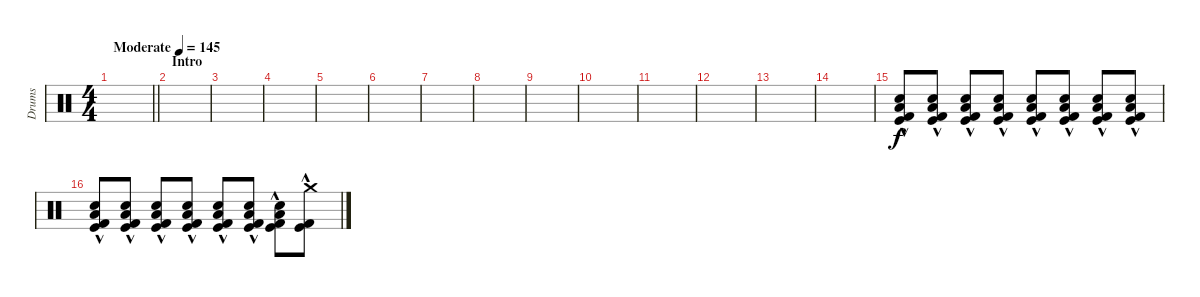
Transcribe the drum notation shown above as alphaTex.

\track ("Drums" "Drums") {instrument percussion}
\staff {score}
\articulation defaults
\ts (4 4)
\tempo (145 "Moderate")
\clef neutral
\barLineRight lightlight
\ks c
|
\section ("" "Intro")
|
|
|
|
|
|
|
|
|
|
|
|
|
("Kick (hit)"{hac} "Low Floor Tom (hit)"{hac} "Electric Snare (hit)" "Kick (hit) 2"{hac}).8 ("Kick (hit)"{hac} "Low Floor Tom (hit)"{hac} "Electric Snare (hit)" "Kick (hit) 2"{hac}).8 ("Kick (hit)"{hac} "Low Floor Tom (hit)"{hac} "Electric Snare (hit)" "Kick (hit) 2"{hac}).8 ("Kick (hit)"{hac} "Low Floor Tom (hit)"{hac} "Electric Snare (hit)" "Kick (hit) 2"{hac}).8 ("Kick (hit)"{hac} "Low Floor Tom (hit)"{hac} "Electric Snare (hit)" "Kick (hit) 2"{hac}).8 ("Kick (hit)"{hac} "Low Floor Tom (hit)"{hac} "Electric Snare (hit)" "Kick (hit) 2"{hac}).8 ("Kick (hit)"{hac} "Low Floor Tom (hit)"{hac} "Electric Snare (hit)" "Kick (hit) 2"{hac}).8 ("Kick (hit)"{hac} "Low Floor Tom (hit)"{hac} "Electric Snare (hit)" "Kick (hit) 2"{hac}).8 |
("Kick (hit)"{hac} "Low Floor Tom (hit)"{hac} "Electric Snare (hit)" "Kick (hit) 2"{hac}).8 ("Kick (hit)"{hac} "Low Floor Tom (hit)"{hac} "Electric Snare (hit)" "Kick (hit) 2"{hac}).8 ("Kick (hit)"{hac} "Low Floor Tom (hit)"{hac} "Electric Snare (hit)" "Kick (hit) 2"{hac}).8 ("Kick (hit)"{hac} "Low Floor Tom (hit)"{hac} "Electric Snare (hit)" "Kick (hit) 2"{hac}).8 ("Kick (hit)"{hac} "Low Floor Tom (hit)"{hac} "Electric Snare (hit)" "Kick (hit) 2"{hac}).8 ("Kick (hit)"{hac} "Low Floor Tom (hit)"{hac} "Electric Snare (hit)" "Kick (hit) 2"{hac}).8 ("Kick (hit)"{hac} "Low Floor Tom (hit)"{hac} "Electric Snare (hit)" "Kick (hit) 2"{hac}).8 ("Crash medium (hit)" "Kick (hit)"{hac} "Kick (hit) 2"{hac}).8
